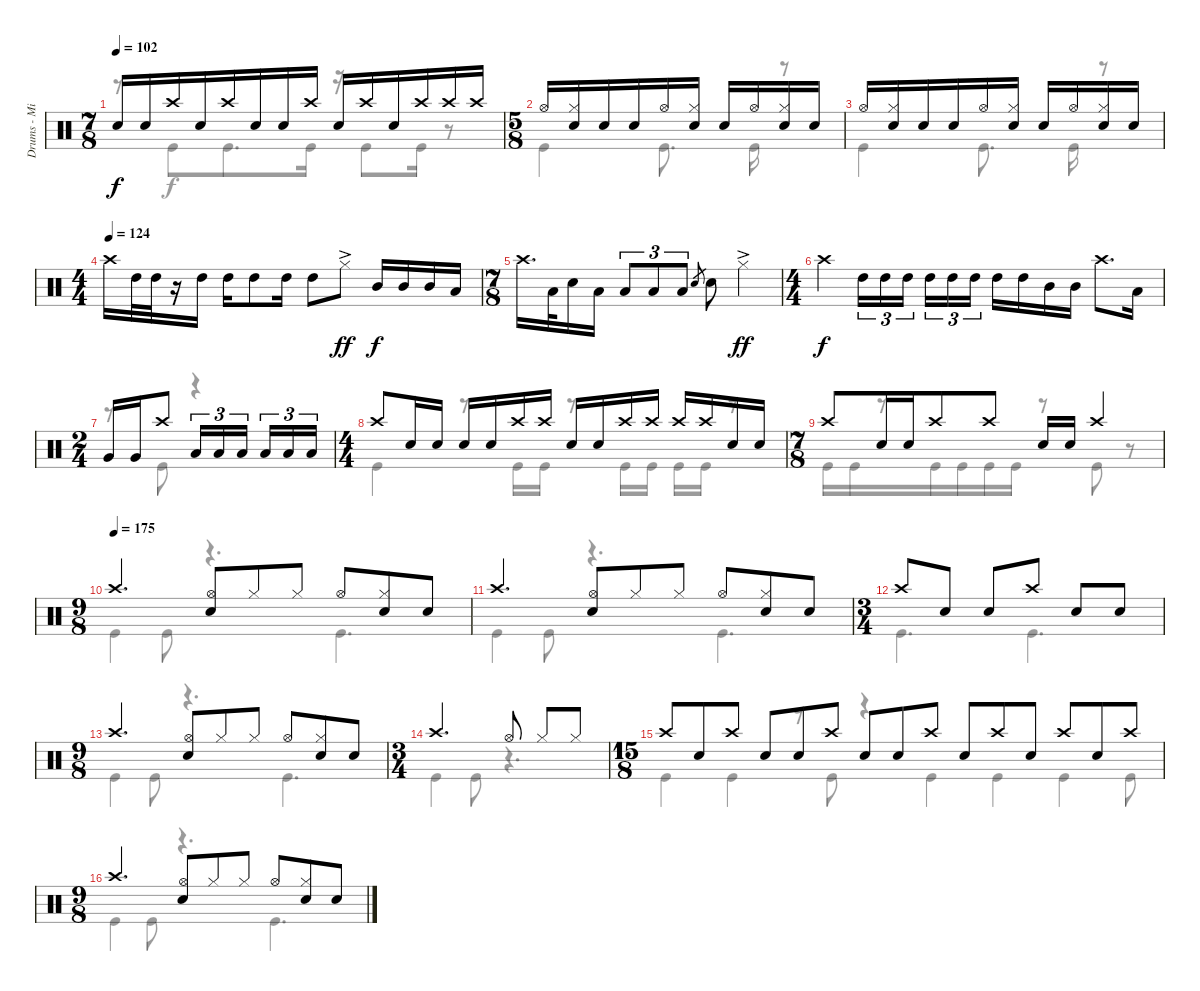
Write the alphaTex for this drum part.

\track ("Drums - Mike Portnoy" "Drums - Mi") {instrument percussion}
\staff {score}
\articulation defaults
\voice
\ts (7 8)
\tempo 102
\clef neutral
\ks c "Snare (hit) 2".16{dy f} "Snare (hit) 2".16 "Crash high (hit)".16 "Snare (hit) 2".16 "Crash high (hit)".16 "Snare (hit) 2".16 "Snare (hit) 2".16 "Crash high (hit)".16 "Snare (hit) 2".16 "Crash high (hit)".16 "Snare (hit) 2".16 "Crash high (hit)".16 "Crash high (hit)".16 "Crash high (hit)".16
|
\ts (5 8)
"Hi-Hat (open)".16 ("Hi-Hat (closed)" "Snare (hit) 2").16 "Snare (hit) 2".16 "Snare (hit) 2".16 "Hi-Hat (open)".16 ("Hi-Hat (closed)" "Snare (hit) 2").16 "Snare (hit) 2".16 "Hi-Hat (open)".16 ("Hi-Hat (closed)" "Snare (hit) 2").16 "Snare (hit) 2".16 |
"Hi-Hat (open)".16 ("Hi-Hat (closed)" "Snare (hit) 2").16 "Snare (hit) 2".16 "Snare (hit) 2".16 "Hi-Hat (open)".16 ("Hi-Hat (closed)" "Snare (hit) 2").16 "Snare (hit) 2".16 "Hi-Hat (open)".16 ("Hi-Hat (closed)" "Snare (hit) 2").16 "Snare (hit) 2".16 |
\ts (4 4)
\tempo (124)
"Crash high (hit)".16 "High Tom (hit)".32 "High Tom (hit)".32 r.16 "High Tom (hit)".16 "High Tom (hit)".16 "High Tom (hit)".8 "High Tom (hit)".16 "High Tom (hit)".8 "Hi-Hat (closed)"{ac}.8{dy ff} "Mid Tom (hit)".16{dy f} "Mid Tom (hit)".16 "Mid Tom (hit)".16 "Low Tom (hit)".16 |
\ts (7 8)
"Crash high (hit)".16{d} "Low Tom (hit)".32 "Snare (hit) 2".16 "Low Tom (hit)".16 "Low Tom (hit)".8{tu (3 2)} "Low Tom (hit)".8{tu (3 2)} "Low Tom (hit)".8{tu (3 2)} "Snare (hit) 2".8{gr} "Snare (hit) 2".8 "Hi-Hat (closed)"{ac}.4{dy ff} |
\ts (4 4)
"Crash high (hit)".4{dy f} "High Tom (hit)".16{tu (3 2)} "High Tom (hit)".16{tu (3 2)} "High Tom (hit)".16{tu (3 2) beam splitsecondary} "High Tom (hit)".16{tu (3 2)} "High Tom (hit)".16{tu (3 2)} "High Tom (hit)".16{tu (3 2)} "High Tom (hit)".16 "High Tom (hit)".16 "Mid Tom (hit)".16 "Mid Tom (hit)".16 "Crash high (hit)".8{d} "Low Tom (hit)".16 |
\ts (2 4)
"Very Low Tom (hit)".16 "Very Low Tom (hit)".16 "Crash high (hit)".8 "Low Tom (hit)".16{tu (3 2)} "Low Tom (hit)".16{tu (3 2)} "Low Tom (hit)".16{tu (3 2) beam splitsecondary} "Low Tom (hit)".16{tu (3 2)} "Low Tom (hit)".16{tu (3 2)} "Low Tom (hit)".16{tu (3 2)} |
\ts (4 4)
"Crash high (hit)".8 "Snare (hit) 2".16 "Snare (hit) 2".16 "Snare (hit) 2".16 "Snare (hit) 2".16 "Crash high (hit)".16 "Crash high (hit)".16 "Snare (hit) 2".16 "Snare (hit) 2".16 "Crash high (hit)".16 "Crash high (hit)".16 "Crash high (hit)".16 "Crash high (hit)".16 "Snare (hit) 2".16 "Snare (hit) 2".16 |
\ts (7 8)
"Crash high (hit)".8 "Snare (hit) 2".16 "Snare (hit) 2".16 "Crash high (hit)".8 "Crash high (hit)".8 "Snare (hit) 2".16 "Snare (hit) 2".16 "Crash high (hit)".4 |
\ts (9 8)
\tempo (175)
"Crash high (hit)".4{d} ("Hi-Hat (open)" "Snare (hit) 2").8 "Hi-Hat (closed)".8 "Hi-Hat (closed)".8 "Hi-Hat (open)".8 ("Hi-Hat (closed)" "Snare (hit) 2").8 "Snare (hit) 2".8 |
"Crash high (hit)".4{d} ("Hi-Hat (open)" "Snare (hit) 2").8 "Hi-Hat (closed)".8 "Hi-Hat (closed)".8 "Hi-Hat (open)".8 ("Hi-Hat (closed)" "Snare (hit) 2").8 "Snare (hit) 2".8 |
\ts (3 4)
"Crash high (hit)".8 "Snare (hit) 2".8 "Snare (hit) 2".8 "Crash high (hit)".8 "Snare (hit) 2".8 "Snare (hit) 2".8 |
\ts (9 8)
"Crash high (hit)".4{d} ("Hi-Hat (open)" "Snare (hit) 2").8 "Hi-Hat (closed)".8 "Hi-Hat (closed)".8 "Hi-Hat (open)".8 ("Hi-Hat (closed)" "Snare (hit) 2").8 "Snare (hit) 2".8 |
\ts (3 4)
"Crash high (hit)".4{d} "Hi-Hat (open)".8 "Hi-Hat (closed)".8 "Hi-Hat (closed)".8 |
\ts (15 8)
"Crash high (hit)".8 "Snare (hit) 2".8 "Crash high (hit)".8 "Snare (hit) 2".8 "Snare (hit) 2".8 "Crash high (hit)".8 "Snare (hit) 2".8 "Snare (hit) 2".8 "Crash high (hit)".8 "Snare (hit) 2".8 "Crash high (hit)".8 "Snare (hit) 2".8 "Crash high (hit)".8 "Snare (hit) 2".8 "Crash high (hit)".8 |
\ts (9 8)
"Crash high (hit)".4{d} ("Hi-Hat (open)" "Snare (hit) 2").8 "Hi-Hat (closed)".8 "Hi-Hat (closed)".8 "Hi-Hat (open)".8 ("Hi-Hat (closed)" "Snare (hit) 2").8 "Snare (hit) 2".8
\voice
\clef neutral
\ottava regular
\simile none
\ks c
r.8{dy f} "Kick (hit)".8 "Kick (hit)".8{d} "Kick (hit)".16 r.16 "Kick (hit)".8 "Kick (hit)".16 r.8 |
"Kick (hit)".4 "Kick (hit)".8{d} "Kick (hit)".16 r.8 |
"Kick (hit)".4 "Kick (hit)".8{d} "Kick (hit)".16 r.8 |
|
|
|
r.8 "Kick (hit)".8 r.4 |
"Kick (hit)".4 r.8 "Kick (hit)".16 "Kick (hit)".16 r.8 "Kick (hit)".16 "Kick (hit)".16 "Kick (hit)".16 "Kick (hit)".16 r.8 |
"Kick (hit)".16 "Kick (hit)".16 r.8 "Kick (hit)".16 "Kick (hit)".16 "Kick (hit)".16 "Kick (hit)".16 r.8 "Kick (hit)".8 r.8 |
"Kick (hit)".4 "Kick (hit)".8 r.4{d} "Kick (hit)".4{d} |
"Kick (hit)".4 "Kick (hit)".8 r.4{d} "Kick (hit)".4{d} |
"Kick (hit)".4{d} "Kick (hit)".4{d} |
"Kick (hit)".4 "Kick (hit)".8 r.4{d} "Kick (hit)".4{d} |
"Kick (hit)".4 "Kick (hit)".8 r.4{d} |
"Kick (hit)".4 "Kick (hit)".4 r.8 "Kick (hit)".8 r.4 "Kick (hit)".4 "Kick (hit)".4 "Kick (hit)".4 "Kick (hit)".8 |
"Kick (hit)".4 "Kick (hit)".8 r.4{d} "Kick (hit)".4{d}
